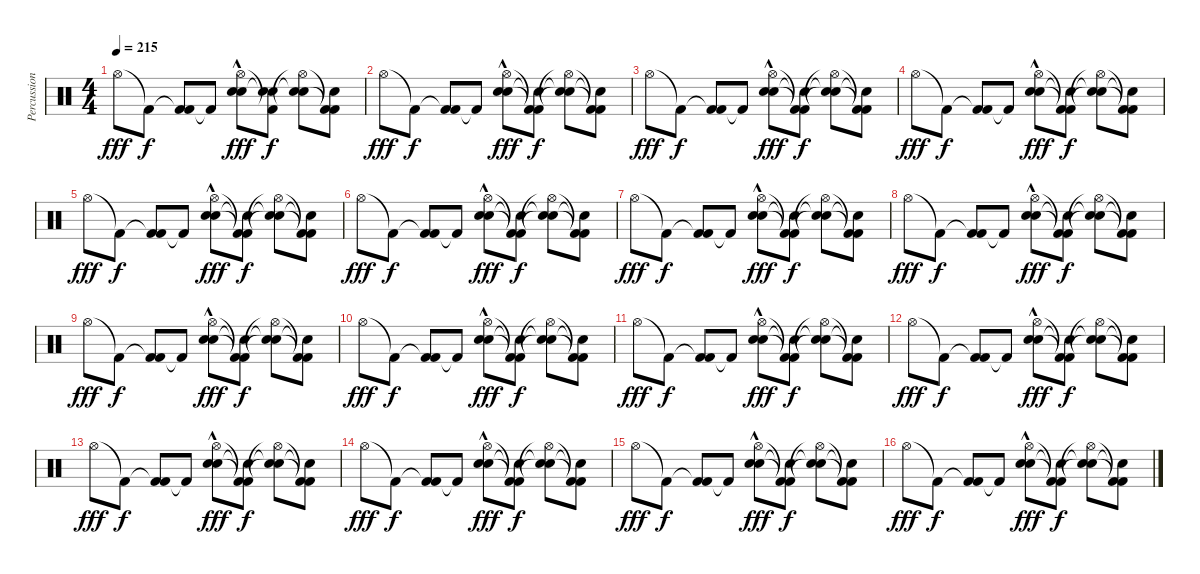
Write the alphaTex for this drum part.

\track ("Percussion" "Percussion") {instrument percussion}
\staff {score}
\articulation defaults
\ts (4 4)
\tempo 215
\clef neutral
\ks c "Hi-Hat (open)".8{dy fff} "Kick (hit) 2"{t}.8{dy f}
("Kick (hit) 2"{t} "Kick (hit) 2").8 "Kick (hit) 2"{t}.8 ("Snare (hit) 2"{hac} "Hi-Hat (open)"{hac} "Electric Snare (hit)").8{dy fff} ("Snare (hit) 2" "Kick (hit) 2"{t} "Snare (hit)"{t}).8{dy f} ("Snare (hit)"{t} "Hi-Hat (open)"{t} "Electric Snare (hit)").8 ("Kick (hit) 2"{t} "Kick (hit) 2"{t} "Electric Snare (hit)").8 |
"Hi-Hat (open)".8{dy fff} "Kick (hit) 2"{t}.8{dy f} ("Kick (hit) 2"{t} "Kick (hit) 2").8 "Kick (hit) 2"{t}.8 ("Snare (hit) 2"{hac} "Hi-Hat (open)"{hac} "Electric Snare (hit)").8{dy fff} ("Kick (hit) 2"{t} "Kick (hit) 2"{t} "Snare (hit)"{t}).8{dy f} ("Snare (hit)"{t} "Hi-Hat (open)"{t} "Snare (hit)"{t}).8 ("Kick (hit) 2"{t} "Kick (hit) 2"{t} "Snare (hit)"{t}).8 |
"Hi-Hat (open)".8{dy fff} "Kick (hit) 2"{t}.8{dy f} ("Kick (hit) 2"{t} "Kick (hit) 2").8 "Kick (hit) 2"{t}.8 ("Snare (hit) 2"{hac} "Hi-Hat (open)"{hac} "Electric Snare (hit)").8{dy fff} ("Kick (hit) 2"{t} "Kick (hit) 2"{t} "Snare (hit)"{t}).8{dy f} ("Snare (hit)"{t} "Hi-Hat (open)"{t} "Snare (hit)"{t}).8 ("Kick (hit) 2"{t} "Kick (hit) 2"{t} "Snare (hit)"{t}).8 |
"Hi-Hat (open)".8{dy fff} "Kick (hit) 2"{t}.8{dy f} ("Kick (hit) 2"{t} "Kick (hit) 2").8 "Kick (hit) 2"{t}.8 ("Snare (hit) 2"{hac} "Hi-Hat (open)"{hac} "Electric Snare (hit)").8{dy fff} ("Kick (hit) 2"{t} "Kick (hit) 2"{t} "Snare (hit)"{t}).8{dy f} ("Snare (hit)"{t} "Hi-Hat (open)"{t} "Snare (hit)"{t}).8 ("Kick (hit) 2"{t} "Kick (hit) 2"{t} "Snare (hit)"{t}).8 |
"Hi-Hat (open)".8{dy fff} "Kick (hit) 2"{t}.8{dy f} ("Kick (hit) 2"{t} "Kick (hit) 2").8 "Kick (hit) 2"{t}.8 ("Snare (hit) 2"{hac} "Hi-Hat (open)"{hac} "Electric Snare (hit)").8{dy fff} ("Kick (hit) 2"{t} "Kick (hit) 2"{t} "Snare (hit)"{t}).8{dy f} ("Snare (hit)"{t} "Hi-Hat (open)"{t} "Snare (hit)"{t}).8 ("Kick (hit) 2"{t} "Kick (hit) 2"{t} "Snare (hit)"{t}).8 |
"Hi-Hat (open)".8{dy fff} "Kick (hit) 2"{t}.8{dy f} ("Kick (hit) 2"{t} "Kick (hit) 2").8 "Kick (hit) 2"{t}.8 ("Snare (hit) 2"{hac} "Hi-Hat (open)"{hac} "Electric Snare (hit)").8{dy fff} ("Kick (hit) 2"{t} "Kick (hit) 2"{t} "Snare (hit)"{t}).8{dy f} ("Snare (hit)"{t} "Hi-Hat (open)"{t} "Snare (hit)"{t}).8 ("Kick (hit) 2"{t} "Kick (hit) 2"{t} "Snare (hit)"{t}).8 |
"Hi-Hat (open)".8{dy fff} "Kick (hit) 2"{t}.8{dy f} ("Kick (hit) 2"{t} "Kick (hit) 2").8 "Kick (hit) 2"{t}.8 ("Snare (hit) 2"{hac} "Hi-Hat (open)"{hac} "Electric Snare (hit)").8{dy fff} ("Kick (hit) 2"{t} "Kick (hit) 2"{t} "Snare (hit)"{t}).8{dy f} ("Snare (hit)"{t} "Hi-Hat (open)"{t} "Snare (hit)"{t}).8 ("Kick (hit) 2"{t} "Kick (hit) 2"{t} "Snare (hit)"{t}).8 |
"Hi-Hat (open)".8{dy fff} "Kick (hit) 2"{t}.8{dy f} ("Kick (hit) 2"{t} "Kick (hit) 2").8 "Kick (hit) 2"{t}.8 ("Snare (hit) 2"{hac} "Hi-Hat (open)"{hac} "Electric Snare (hit)").8{dy fff} ("Kick (hit) 2"{t} "Kick (hit) 2"{t} "Snare (hit)"{t}).8{dy f} ("Snare (hit)"{t} "Hi-Hat (open)"{t} "Snare (hit)"{t}).8 ("Kick (hit) 2"{t} "Kick (hit) 2"{t} "Snare (hit)"{t}).8 |
"Hi-Hat (open)".8{dy fff} "Kick (hit) 2"{t}.8{dy f} ("Kick (hit) 2"{t} "Kick (hit) 2").8 "Kick (hit) 2"{t}.8 ("Snare (hit) 2"{hac} "Hi-Hat (open)"{hac} "Electric Snare (hit)").8{dy fff} ("Kick (hit) 2"{t} "Kick (hit) 2"{t} "Snare (hit)"{t}).8{dy f} ("Snare (hit)"{t} "Hi-Hat (open)"{t} "Snare (hit)"{t}).8 ("Kick (hit) 2"{t} "Kick (hit) 2"{t} "Snare (hit)"{t}).8 |
"Hi-Hat (open)".8{dy fff} "Kick (hit) 2"{t}.8{dy f} ("Kick (hit) 2"{t} "Kick (hit) 2").8 "Kick (hit) 2"{t}.8 ("Snare (hit) 2"{hac} "Hi-Hat (open)"{hac} "Electric Snare (hit)").8{dy fff} ("Kick (hit) 2"{t} "Kick (hit) 2"{t} "Snare (hit)"{t}).8{dy f} ("Snare (hit)"{t} "Hi-Hat (open)"{t} "Snare (hit)"{t}).8 ("Kick (hit) 2"{t} "Kick (hit) 2"{t} "Snare (hit)"{t}).8 |
"Hi-Hat (open)".8{dy fff} "Kick (hit) 2"{t}.8{dy f} ("Kick (hit) 2"{t} "Kick (hit) 2").8 "Kick (hit) 2"{t}.8 ("Snare (hit) 2"{hac} "Hi-Hat (open)"{hac} "Electric Snare (hit)").8{dy fff} ("Kick (hit) 2"{t} "Kick (hit) 2"{t} "Snare (hit)"{t}).8{dy f} ("Snare (hit)"{t} "Hi-Hat (open)"{t} "Snare (hit)"{t}).8 ("Kick (hit) 2"{t} "Kick (hit) 2"{t} "Snare (hit)"{t}).8 |
"Hi-Hat (open)".8{dy fff} "Kick (hit) 2"{t}.8{dy f} ("Kick (hit) 2"{t} "Kick (hit) 2").8 "Kick (hit) 2"{t}.8 ("Snare (hit) 2"{hac} "Hi-Hat (open)"{hac} "Electric Snare (hit)").8{dy fff} ("Kick (hit) 2"{t} "Kick (hit) 2"{t} "Snare (hit)"{t}).8{dy f} ("Snare (hit)"{t} "Hi-Hat (open)"{t} "Snare (hit)"{t}).8 ("Kick (hit) 2"{t} "Kick (hit) 2"{t} "Snare (hit)"{t}).8 |
"Hi-Hat (open)".8{dy fff} "Kick (hit) 2"{t}.8{dy f} ("Kick (hit) 2"{t} "Kick (hit) 2").8 "Kick (hit) 2"{t}.8 ("Snare (hit) 2"{hac} "Hi-Hat (open)"{hac} "Electric Snare (hit)").8{dy fff} ("Kick (hit) 2"{t} "Kick (hit) 2"{t} "Snare (hit)"{t}).8{dy f} ("Snare (hit)"{t} "Hi-Hat (open)"{t} "Snare (hit)"{t}).8 ("Kick (hit) 2"{t} "Kick (hit) 2"{t} "Snare (hit)"{t}).8 |
"Hi-Hat (open)".8{dy fff} "Kick (hit) 2"{t}.8{dy f} ("Kick (hit) 2"{t} "Kick (hit) 2").8 "Kick (hit) 2"{t}.8 ("Snare (hit) 2"{hac} "Hi-Hat (open)"{hac} "Electric Snare (hit)").8{dy fff} ("Kick (hit) 2"{t} "Kick (hit) 2"{t} "Snare (hit)"{t}).8{dy f} ("Snare (hit)"{t} "Hi-Hat (open)"{t} "Snare (hit)"{t}).8 ("Kick (hit) 2"{t} "Kick (hit) 2"{t} "Snare (hit)"{t}).8 |
"Hi-Hat (open)".8{dy fff} "Kick (hit) 2"{t}.8{dy f} ("Kick (hit) 2"{t} "Kick (hit) 2").8 "Kick (hit) 2"{t}.8 ("Snare (hit) 2"{hac} "Hi-Hat (open)"{hac} "Electric Snare (hit)").8{dy fff} ("Kick (hit) 2"{t} "Kick (hit) 2"{t} "Snare (hit)"{t}).8{dy f} ("Snare (hit)"{t} "Hi-Hat (open)"{t} "Snare (hit)"{t}).8 ("Kick (hit) 2"{t} "Kick (hit) 2"{t} "Snare (hit)"{t}).8 |
"Hi-Hat (open)".8{dy fff} "Kick (hit) 2"{t}.8{dy f} ("Kick (hit) 2"{t} "Kick (hit) 2").8 "Kick (hit) 2"{t}.8 ("Snare (hit) 2"{hac} "Hi-Hat (open)"{hac} "Electric Snare (hit)").8{dy fff} ("Kick (hit) 2"{t} "Kick (hit) 2"{t} "Snare (hit)"{t}).8{dy f} ("Snare (hit)"{t} "Hi-Hat (open)"{t} "Snare (hit)"{t}).8 ("Kick (hit) 2"{t} "Kick (hit) 2"{t} "Snare (hit)"{t}).8
